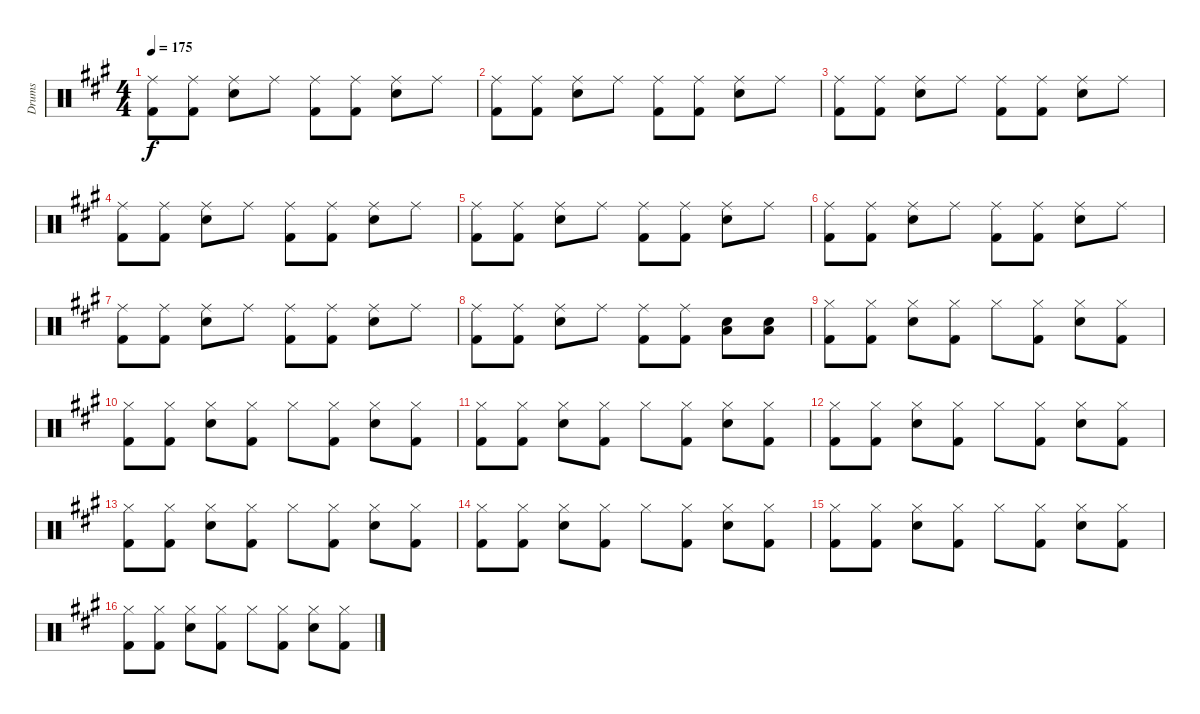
\track ("Drums" "Drums") {instrument percussion}
\staff {score}
\articulation defaults
\ts (4 4)
\tempo 175
\clef neutral
\ks f#minor
("Ride (middle)" "Kick (hit) 2").8{dy f} ("Ride (middle)" "Kick (hit) 2").8 ("Ride (middle)" "Snare (hit) 2").8 "Ride (middle)".8 ("Ride (middle)" "Kick (hit) 2").8 ("Ride (middle)" "Kick (hit) 2").8 ("Ride (middle)" "Snare (hit) 2").8 "Ride (middle)".8 |
("Ride (middle)" "Kick (hit) 2").8 ("Ride (middle)" "Kick (hit) 2").8 ("Ride (middle)" "Snare (hit) 2").8 "Ride (middle)".8 ("Ride (middle)" "Kick (hit) 2").8 ("Ride (middle)" "Kick (hit) 2").8 ("Ride (middle)" "Snare (hit) 2").8 "Ride (middle)".8 |
("Ride (middle)" "Kick (hit) 2").8 ("Ride (middle)" "Kick (hit) 2").8 ("Ride (middle)" "Snare (hit) 2").8 "Ride (middle)".8 ("Ride (middle)" "Kick (hit) 2").8 ("Ride (middle)" "Kick (hit) 2").8 ("Ride (middle)" "Snare (hit) 2").8 "Ride (middle)".8 |
("Ride (middle)" "Kick (hit) 2").8 ("Ride (middle)" "Kick (hit) 2").8 ("Ride (middle)" "Snare (hit) 2").8 "Ride (middle)".8 ("Ride (middle)" "Kick (hit) 2").8 ("Ride (middle)" "Kick (hit) 2").8 ("Ride (middle)" "Snare (hit) 2").8 "Ride (middle)".8 |
("Ride (middle)" "Kick (hit) 2").8 ("Ride (middle)" "Kick (hit) 2").8 ("Ride (middle)" "Snare (hit) 2").8 "Ride (middle)".8 ("Ride (middle)" "Kick (hit) 2").8 ("Ride (middle)" "Kick (hit) 2").8 ("Ride (middle)" "Snare (hit) 2").8 "Ride (middle)".8 |
("Ride (middle)" "Kick (hit) 2").8 ("Ride (middle)" "Kick (hit) 2").8 ("Ride (middle)" "Snare (hit) 2").8 "Ride (middle)".8 ("Ride (middle)" "Kick (hit) 2").8 ("Ride (middle)" "Kick (hit) 2").8 ("Ride (middle)" "Snare (hit) 2").8 "Ride (middle)".8 |
("Ride (middle)" "Kick (hit) 2").8 ("Ride (middle)" "Kick (hit) 2").8 ("Ride (middle)" "Snare (hit) 2").8 "Ride (middle)".8 ("Ride (middle)" "Kick (hit) 2").8 ("Ride (middle)" "Kick (hit) 2").8 ("Ride (middle)" "Snare (hit) 2").8 "Ride (middle)".8 |
("Ride (middle)" "Kick (hit) 2").8 ("Ride (middle)" "Kick (hit) 2").8 ("Ride (middle)" "Snare (hit) 2").8 "Ride (middle)".8 ("Ride (middle)" "Kick (hit) 2").8 ("Ride (middle)" "Kick (hit) 2").8 ("Snare (hit) 2" "Low Tom (hit)").8 ("Snare (hit) 2" "Low Tom (hit)").8 |
("Hi-Hat (closed)" "Kick (hit) 2").8 ("Hi-Hat (closed)" "Kick (hit) 2").8 ("Hi-Hat (closed)" "Snare (hit) 2").8 ("Hi-Hat (closed)" "Kick (hit) 2").8 "Hi-Hat (closed)".8 ("Hi-Hat (closed)" "Kick (hit) 2").8 ("Hi-Hat (closed)" "Snare (hit) 2").8 ("Hi-Hat (closed)" "Kick (hit) 2").8 |
("Hi-Hat (closed)" "Kick (hit) 2").8 ("Hi-Hat (closed)" "Kick (hit) 2").8 ("Hi-Hat (closed)" "Snare (hit) 2").8 ("Hi-Hat (closed)" "Kick (hit) 2").8 "Hi-Hat (closed)".8 ("Hi-Hat (closed)" "Kick (hit) 2").8 ("Hi-Hat (closed)" "Snare (hit) 2").8 ("Hi-Hat (closed)" "Kick (hit) 2").8 |
("Hi-Hat (closed)" "Kick (hit) 2").8 ("Hi-Hat (closed)" "Kick (hit) 2").8 ("Hi-Hat (closed)" "Snare (hit) 2").8 ("Hi-Hat (closed)" "Kick (hit) 2").8 "Hi-Hat (closed)".8 ("Hi-Hat (closed)" "Kick (hit) 2").8 ("Hi-Hat (closed)" "Snare (hit) 2").8 ("Hi-Hat (closed)" "Kick (hit) 2").8 |
("Hi-Hat (closed)" "Kick (hit) 2").8 ("Hi-Hat (closed)" "Kick (hit) 2").8 ("Hi-Hat (closed)" "Snare (hit) 2").8 ("Hi-Hat (closed)" "Kick (hit) 2").8 "Hi-Hat (closed)".8 ("Hi-Hat (closed)" "Kick (hit) 2").8 ("Hi-Hat (closed)" "Snare (hit) 2").8 ("Hi-Hat (closed)" "Kick (hit) 2").8 |
("Hi-Hat (closed)" "Kick (hit) 2").8 ("Hi-Hat (closed)" "Kick (hit) 2").8 ("Hi-Hat (closed)" "Snare (hit) 2").8 ("Hi-Hat (closed)" "Kick (hit) 2").8 "Hi-Hat (closed)".8 ("Hi-Hat (closed)" "Kick (hit) 2").8 ("Hi-Hat (closed)" "Snare (hit) 2").8 ("Hi-Hat (closed)" "Kick (hit) 2").8 |
("Hi-Hat (closed)" "Kick (hit) 2").8 ("Hi-Hat (closed)" "Kick (hit) 2").8 ("Hi-Hat (closed)" "Snare (hit) 2").8 ("Hi-Hat (closed)" "Kick (hit) 2").8 "Hi-Hat (closed)".8 ("Hi-Hat (closed)" "Kick (hit) 2").8 ("Hi-Hat (closed)" "Snare (hit) 2").8 ("Hi-Hat (closed)" "Kick (hit) 2").8 |
("Hi-Hat (closed)" "Kick (hit) 2").8 ("Hi-Hat (closed)" "Kick (hit) 2").8 ("Hi-Hat (closed)" "Snare (hit) 2").8 ("Hi-Hat (closed)" "Kick (hit) 2").8 "Hi-Hat (closed)".8 ("Hi-Hat (closed)" "Kick (hit) 2").8 ("Hi-Hat (closed)" "Snare (hit) 2").8 ("Hi-Hat (closed)" "Kick (hit) 2").8 |
("Hi-Hat (closed)" "Kick (hit) 2").8 ("Hi-Hat (closed)" "Kick (hit) 2").8 ("Hi-Hat (closed)" "Snare (hit) 2").8 ("Hi-Hat (closed)" "Kick (hit) 2").8 "Hi-Hat (closed)".8 ("Hi-Hat (closed)" "Kick (hit) 2").8 ("Hi-Hat (closed)" "Snare (hit) 2").8 ("Hi-Hat (closed)" "Kick (hit) 2").8
